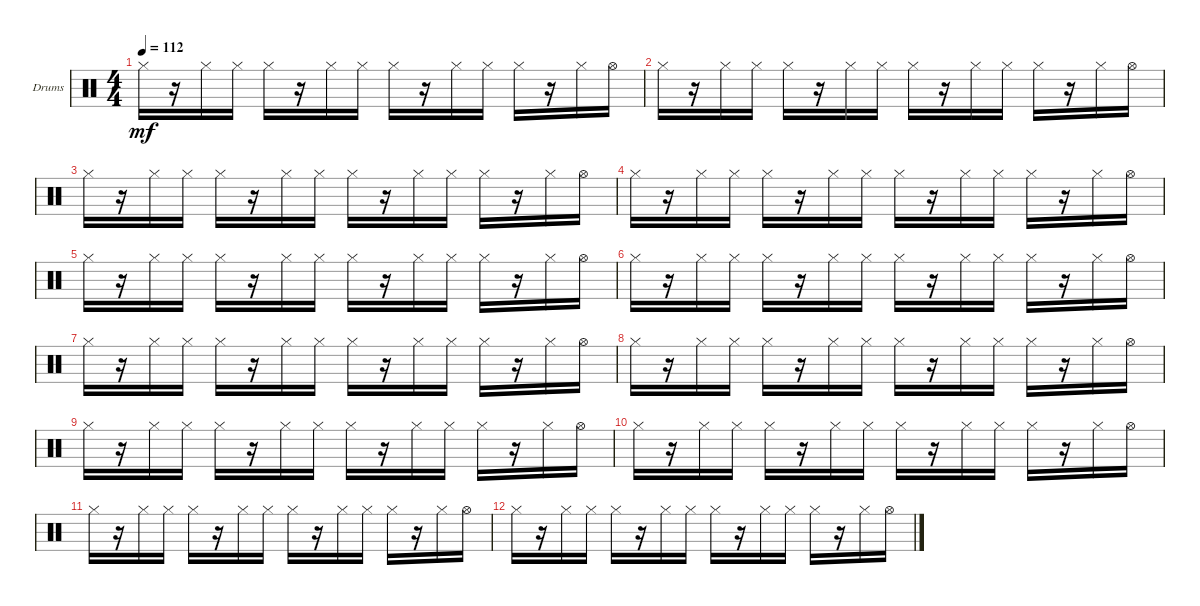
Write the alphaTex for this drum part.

\bracketExtendMode groupsimilarinstruments
\firstSystemTrackNameOrientation horizontal
\otherSystemsTrackNameOrientation horizontal
\track ("hihat" "Drums") {instrument percussion}
\staff {score}
\articulation defaults
\ts (4 4)
\tempo 112
\clef neutral
\ks c "Hi-Hat (closed)".16{dy mf}
r.16 "Hi-Hat (closed)".16 "Hi-Hat (closed)".16 "Hi-Hat (closed)".16 r.16 "Hi-Hat (closed)".16 "Hi-Hat (closed)".16 "Hi-Hat (closed)".16 r.16 "Hi-Hat (closed)".16 "Hi-Hat (closed)".16 "Hi-Hat (closed)".16 r.16 "Hi-Hat (closed)".16 "Hi-Hat (open)".16 |
"Hi-Hat (closed)".16 r.16 "Hi-Hat (closed)".16 "Hi-Hat (closed)".16 "Hi-Hat (closed)".16 r.16 "Hi-Hat (closed)".16 "Hi-Hat (closed)".16 "Hi-Hat (closed)".16 r.16 "Hi-Hat (closed)".16 "Hi-Hat (closed)".16 "Hi-Hat (closed)".16 r.16 "Hi-Hat (closed)".16 "Hi-Hat (open)".16 |
"Hi-Hat (closed)".16 r.16 "Hi-Hat (closed)".16 "Hi-Hat (closed)".16 "Hi-Hat (closed)".16 r.16 "Hi-Hat (closed)".16 "Hi-Hat (closed)".16 "Hi-Hat (closed)".16 r.16 "Hi-Hat (closed)".16 "Hi-Hat (closed)".16 "Hi-Hat (closed)".16 r.16 "Hi-Hat (closed)".16 "Hi-Hat (open)".16 |
"Hi-Hat (closed)".16 r.16 "Hi-Hat (closed)".16 "Hi-Hat (closed)".16 "Hi-Hat (closed)".16 r.16 "Hi-Hat (closed)".16 "Hi-Hat (closed)".16 "Hi-Hat (closed)".16 r.16 "Hi-Hat (closed)".16 "Hi-Hat (closed)".16 "Hi-Hat (closed)".16 r.16 "Hi-Hat (closed)".16 "Hi-Hat (open)".16 |
"Hi-Hat (closed)".16 r.16 "Hi-Hat (closed)".16 "Hi-Hat (closed)".16 "Hi-Hat (closed)".16 r.16 "Hi-Hat (closed)".16 "Hi-Hat (closed)".16 "Hi-Hat (closed)".16 r.16 "Hi-Hat (closed)".16 "Hi-Hat (closed)".16 "Hi-Hat (closed)".16 r.16 "Hi-Hat (closed)".16 "Hi-Hat (open)".16 |
"Hi-Hat (closed)".16 r.16 "Hi-Hat (closed)".16 "Hi-Hat (closed)".16 "Hi-Hat (closed)".16 r.16 "Hi-Hat (closed)".16 "Hi-Hat (closed)".16 "Hi-Hat (closed)".16 r.16 "Hi-Hat (closed)".16 "Hi-Hat (closed)".16 "Hi-Hat (closed)".16 r.16 "Hi-Hat (closed)".16 "Hi-Hat (open)".16 |
"Hi-Hat (closed)".16 r.16 "Hi-Hat (closed)".16 "Hi-Hat (closed)".16 "Hi-Hat (closed)".16 r.16 "Hi-Hat (closed)".16 "Hi-Hat (closed)".16 "Hi-Hat (closed)".16 r.16 "Hi-Hat (closed)".16 "Hi-Hat (closed)".16 "Hi-Hat (closed)".16 r.16 "Hi-Hat (closed)".16 "Hi-Hat (open)".16 |
"Hi-Hat (closed)".16 r.16 "Hi-Hat (closed)".16 "Hi-Hat (closed)".16 "Hi-Hat (closed)".16 r.16 "Hi-Hat (closed)".16 "Hi-Hat (closed)".16 "Hi-Hat (closed)".16 r.16 "Hi-Hat (closed)".16 "Hi-Hat (closed)".16 "Hi-Hat (closed)".16 r.16 "Hi-Hat (closed)".16 "Hi-Hat (open)".16 |
"Hi-Hat (closed)".16 r.16 "Hi-Hat (closed)".16 "Hi-Hat (closed)".16 "Hi-Hat (closed)".16 r.16 "Hi-Hat (closed)".16 "Hi-Hat (closed)".16 "Hi-Hat (closed)".16 r.16 "Hi-Hat (closed)".16 "Hi-Hat (closed)".16 "Hi-Hat (closed)".16 r.16 "Hi-Hat (closed)".16 "Hi-Hat (open)".16 |
"Hi-Hat (closed)".16 r.16 "Hi-Hat (closed)".16 "Hi-Hat (closed)".16 "Hi-Hat (closed)".16 r.16 "Hi-Hat (closed)".16 "Hi-Hat (closed)".16 "Hi-Hat (closed)".16 r.16 "Hi-Hat (closed)".16 "Hi-Hat (closed)".16 "Hi-Hat (closed)".16 r.16 "Hi-Hat (closed)".16 "Hi-Hat (open)".16 |
"Hi-Hat (closed)".16 r.16 "Hi-Hat (closed)".16 "Hi-Hat (closed)".16 "Hi-Hat (closed)".16 r.16 "Hi-Hat (closed)".16 "Hi-Hat (closed)".16 "Hi-Hat (closed)".16 r.16 "Hi-Hat (closed)".16 "Hi-Hat (closed)".16 "Hi-Hat (closed)".16 r.16 "Hi-Hat (closed)".16 "Hi-Hat (open)".16 |
"Hi-Hat (closed)".16 r.16 "Hi-Hat (closed)".16 "Hi-Hat (closed)".16 "Hi-Hat (closed)".16 r.16 "Hi-Hat (closed)".16 "Hi-Hat (closed)".16 "Hi-Hat (closed)".16 r.16 "Hi-Hat (closed)".16 "Hi-Hat (closed)".16 "Hi-Hat (closed)".16 r.16 "Hi-Hat (closed)".16 "Hi-Hat (open)".16
